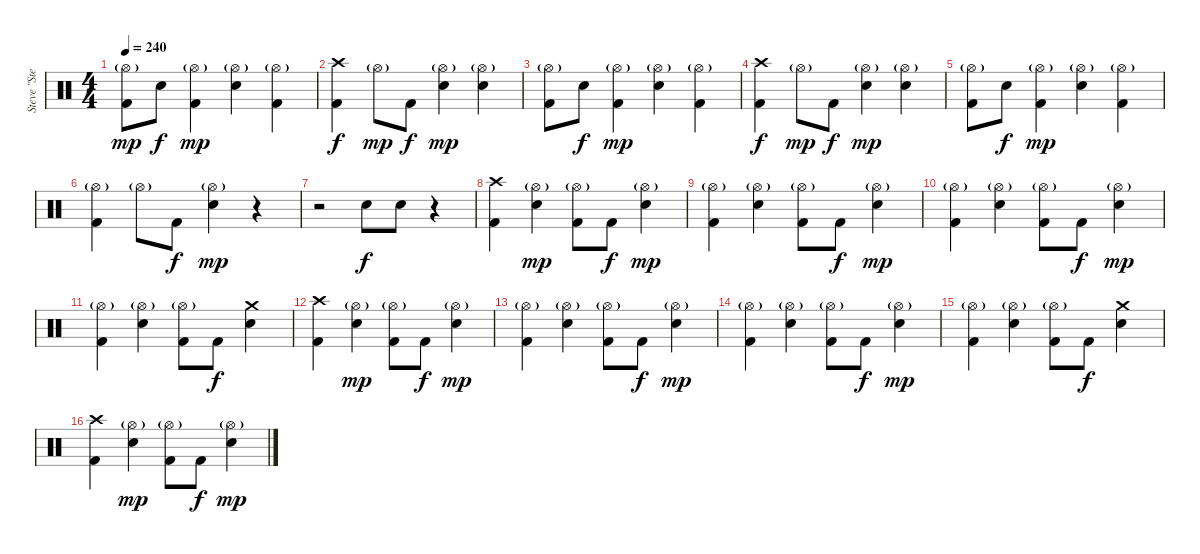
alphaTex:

\track ("Steve \"Stevo32\" Jocz " "Steve \"Ste") {instrument percussion}
\staff {score}
\articulation defaults
\ts (4 4)
\tempo 240
\clef neutral
\ks c
("Hi-Hat (open)"{g} "Kick (hit) 2").8{dy mp} "Electric Snare (hit)".8{dy f} ("Hi-Hat (open)"{g} "Kick (hit) 2").4{dy mp} ("Hi-Hat (open)"{g} "Electric Snare (hit)").4 ("Hi-Hat (open)"{g} "Kick (hit) 2").4 |
("Crash high (hit)" "Kick (hit) 2").4{dy f} "Hi-Hat (open)"{g}.8{dy mp} "Kick (hit) 2".8{dy f} ("Hi-Hat (open)"{g} "Electric Snare (hit)").4{dy mp} ("Hi-Hat (open)"{g} "Electric Snare (hit)").4 |
("Hi-Hat (open)"{g} "Kick (hit) 2").8 "Electric Snare (hit)".8{dy f} ("Hi-Hat (open)"{g} "Kick (hit) 2").4{dy mp} ("Hi-Hat (open)"{g} "Electric Snare (hit)").4 ("Hi-Hat (open)"{g} "Kick (hit) 2").4 |
("Crash high (hit)" "Kick (hit) 2").4{dy f} "Hi-Hat (open)"{g}.8{dy mp} "Kick (hit) 2".8{dy f} ("Hi-Hat (open)"{g} "Electric Snare (hit)").4{dy mp} ("Hi-Hat (open)"{g} "Electric Snare (hit)").4 |
("Hi-Hat (open)"{g} "Kick (hit) 2").8 "Electric Snare (hit)".8{dy f} ("Hi-Hat (open)"{g} "Kick (hit) 2").4{dy mp} ("Hi-Hat (open)"{g} "Electric Snare (hit)").4 ("Hi-Hat (open)"{g} "Kick (hit) 2").4 |
("Hi-Hat (open)"{g} "Kick (hit) 2").4 "Hi-Hat (open)"{g}.8 "Kick (hit) 2".8{dy f} ("Hi-Hat (open)"{g} "Electric Snare (hit)").4{dy mp} r.4 |
r.2 "Electric Snare (hit)".8{dy f} "Electric Snare (hit)".8 r.4 |
("Crash high (hit)" "Kick (hit) 2").4 ("Hi-Hat (open)"{g} "Electric Snare (hit)").4{dy mp} ("Hi-Hat (open)"{g} "Kick (hit) 2").8 "Kick (hit) 2".8{dy f} ("Hi-Hat (open)"{g} "Electric Snare (hit)").4{dy mp} |
("Hi-Hat (open)"{g} "Kick (hit) 2").4 ("Hi-Hat (open)"{g} "Electric Snare (hit)").4 ("Hi-Hat (open)"{g} "Kick (hit) 2").8 "Kick (hit) 2".8{dy f} ("Hi-Hat (open)"{g} "Electric Snare (hit)").4{dy mp} |
("Hi-Hat (open)"{g} "Kick (hit) 2").4 ("Hi-Hat (open)"{g} "Electric Snare (hit)").4 ("Hi-Hat (open)"{g} "Kick (hit) 2").8 "Kick (hit) 2".8{dy f} ("Hi-Hat (open)"{g} "Electric Snare (hit)").4{dy mp} |
("Hi-Hat (open)"{g} "Kick (hit) 2").4 ("Hi-Hat (open)"{g} "Electric Snare (hit)").4 ("Hi-Hat (open)"{g} "Kick (hit) 2").8 "Kick (hit) 2".8{dy f} ("Crash medium (hit)" "Electric Snare (hit)").4 |
("Crash high (hit)" "Kick (hit) 2").4 ("Hi-Hat (open)"{g} "Electric Snare (hit)").4{dy mp} ("Hi-Hat (open)"{g} "Kick (hit) 2").8 "Kick (hit) 2".8{dy f} ("Hi-Hat (open)"{g} "Electric Snare (hit)").4{dy mp} |
("Hi-Hat (open)"{g} "Kick (hit) 2").4 ("Hi-Hat (open)"{g} "Electric Snare (hit)").4 ("Hi-Hat (open)"{g} "Kick (hit) 2").8 "Kick (hit) 2".8{dy f} ("Hi-Hat (open)"{g} "Electric Snare (hit)").4{dy mp} |
("Hi-Hat (open)"{g} "Kick (hit) 2").4 ("Hi-Hat (open)"{g} "Electric Snare (hit)").4 ("Hi-Hat (open)"{g} "Kick (hit) 2").8 "Kick (hit) 2".8{dy f} ("Hi-Hat (open)"{g} "Electric Snare (hit)").4{dy mp} |
("Hi-Hat (open)"{g} "Kick (hit) 2").4 ("Hi-Hat (open)"{g} "Electric Snare (hit)").4 ("Hi-Hat (open)"{g} "Kick (hit) 2").8 "Kick (hit) 2".8{dy f} ("Crash medium (hit)" "Electric Snare (hit)").4 |
("Crash high (hit)" "Kick (hit) 2").4 ("Hi-Hat (open)"{g} "Electric Snare (hit)").4{dy mp} ("Hi-Hat (open)"{g} "Kick (hit) 2").8 "Kick (hit) 2".8{dy f} ("Hi-Hat (open)"{g} "Electric Snare (hit)").4{dy mp}
